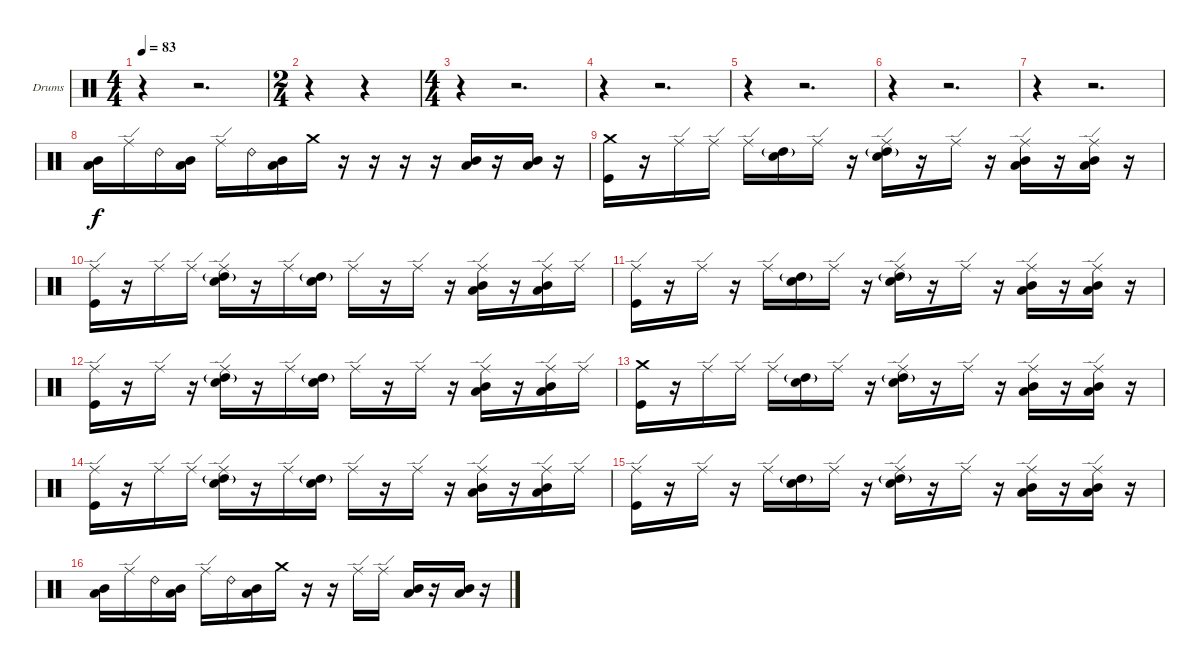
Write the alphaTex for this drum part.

\bracketExtendMode groupsimilarinstruments
\firstSystemTrackNameOrientation horizontal
\otherSystemsTrackNameOrientation horizontal
\track ("Drumkit" "Drums") {instrument percussion}
\staff {score}
\articulation defaults
\ts (4 4)
\tempo 83
\clef neutral
\ks c
r.4{dy f} r.2{d} |
\ts (2 4)
r.4 r.4 |
\ts (4 4)
r.4 r.2{d} |
r.4 r.2{d} |
r.4 r.2{d} |
r.4 r.2{d} |
r.4 r.2{d} |
("Low Tom (hit)" "Mid Tom (hit)").16 "Ride (edge)".16 "Ride (bell) 2".16 ("Low Tom (hit)" "Mid Tom (hit)").16 "Ride (edge)".16 "Ride (bell) 2".16 ("Low Tom (hit)" "Mid Tom (hit)").16 "Crash medium (hit)".16 r.16 r.16 r.16 r.16 ("Low Tom (hit)" "Mid Tom (hit)").16 r.16 ("Low Tom (hit)" "Mid Tom (hit)").16 r.16 |
("Crash medium (hit)" "Kick (hit)").16 r.16 "Ride (edge)".16 "Ride (edge)".16 "Ride (edge)".16 ("High Tom (hit)"{g} "Snare (hit) 2").16 "Ride (edge)".16 r.16 ("Ride (edge)" "High Tom (hit)"{g} "Snare (hit) 2").16 r.16 "Ride (edge)".16 r.16 ("Ride (edge)" "Low Tom (hit)" "Mid Tom (hit)").16 r.16 ("Ride (edge)" "Low Tom (hit)" "Mid Tom (hit)").16 r.16 |
("Ride (edge)" "Kick (hit)").16 r.16 "Ride (edge)".16 "Ride (edge)".16 ("Ride (edge)" "High Tom (hit)"{g} "Snare (hit) 2").16 r.16 "Ride (edge)".16 ("High Tom (hit)"{g} "Snare (hit) 2").16 "Ride (edge)".16 r.16 "Ride (edge)".16 r.16 ("Ride (edge)" "Low Tom (hit)" "Mid Tom (hit)").16 r.16 ("Ride (edge)" "Low Tom (hit)" "Mid Tom (hit)").16 "Ride (edge)".16 |
("Ride (edge)" "Kick (hit)").16 r.16 "Ride (edge)".16 r.16 "Ride (edge)".16 ("High Tom (hit)"{g} "Snare (hit) 2").16 "Ride (edge)".16 r.16 ("Ride (edge)" "High Tom (hit)"{g} "Snare (hit) 2").16 r.16 "Ride (edge)".16 r.16 ("Ride (edge)" "Low Tom (hit)" "Mid Tom (hit)").16 r.16 ("Ride (edge)" "Low Tom (hit)" "Mid Tom (hit)").16 r.16 |
("Ride (edge)" "Kick (hit)").16 r.16 "Ride (edge)".16 r.16 ("Ride (edge)" "High Tom (hit)"{g} "Snare (hit) 2").16 r.16 "Ride (edge)".16 ("High Tom (hit)"{g} "Snare (hit) 2").16 "Ride (edge)".16 r.16 "Ride (edge)".16 r.16 ("Ride (edge)" "Low Tom (hit)" "Mid Tom (hit)").16 r.16 ("Ride (edge)" "Low Tom (hit)" "Mid Tom (hit)").16 "Ride (edge)".16 |
("Crash medium (hit)" "Kick (hit)").16 r.16 "Ride (edge)".16 "Ride (edge)".16 "Ride (edge)".16 ("High Tom (hit)"{g} "Snare (hit) 2").16 "Ride (edge)".16 r.16 ("Ride (edge)" "High Tom (hit)"{g} "Snare (hit) 2").16 r.16 "Ride (edge)".16 r.16 ("Ride (edge)" "Low Tom (hit)" "Mid Tom (hit)").16 r.16 ("Ride (edge)" "Low Tom (hit)" "Mid Tom (hit)").16 r.16 |
("Ride (edge)" "Kick (hit)").16 r.16 "Ride (edge)".16 "Ride (edge)".16 ("Ride (edge)" "High Tom (hit)"{g} "Snare (hit) 2").16 r.16 "Ride (edge)".16 ("High Tom (hit)"{g} "Snare (hit) 2").16 "Ride (edge)".16 r.16 "Ride (edge)".16 r.16 ("Ride (edge)" "Low Tom (hit)" "Mid Tom (hit)").16 r.16 ("Ride (edge)" "Low Tom (hit)" "Mid Tom (hit)").16 "Ride (edge)".16 |
("Ride (edge)" "Kick (hit)").16 r.16 "Ride (edge)".16 r.16 "Ride (edge)".16 ("High Tom (hit)"{g} "Snare (hit) 2").16 "Ride (edge)".16 r.16 ("Ride (edge)" "High Tom (hit)"{g} "Snare (hit) 2").16 r.16 "Ride (edge)".16 r.16 ("Ride (edge)" "Low Tom (hit)" "Mid Tom (hit)").16 r.16 ("Ride (edge)" "Low Tom (hit)" "Mid Tom (hit)").16 r.16 |
("Low Tom (hit)" "Mid Tom (hit)").16 "Ride (edge)".16 "Ride (bell) 2".16 ("Low Tom (hit)" "Mid Tom (hit)").16 "Ride (edge)".16 "Ride (bell) 2".16 ("Low Tom (hit)" "Mid Tom (hit)").16 "Crash medium (hit)".16 r.16 r.16 "Ride (edge)".16 "Ride (edge)".16 ("Low Tom (hit)" "Mid Tom (hit)").16 r.16 ("Low Tom (hit)" "Mid Tom (hit)").16 r.16
